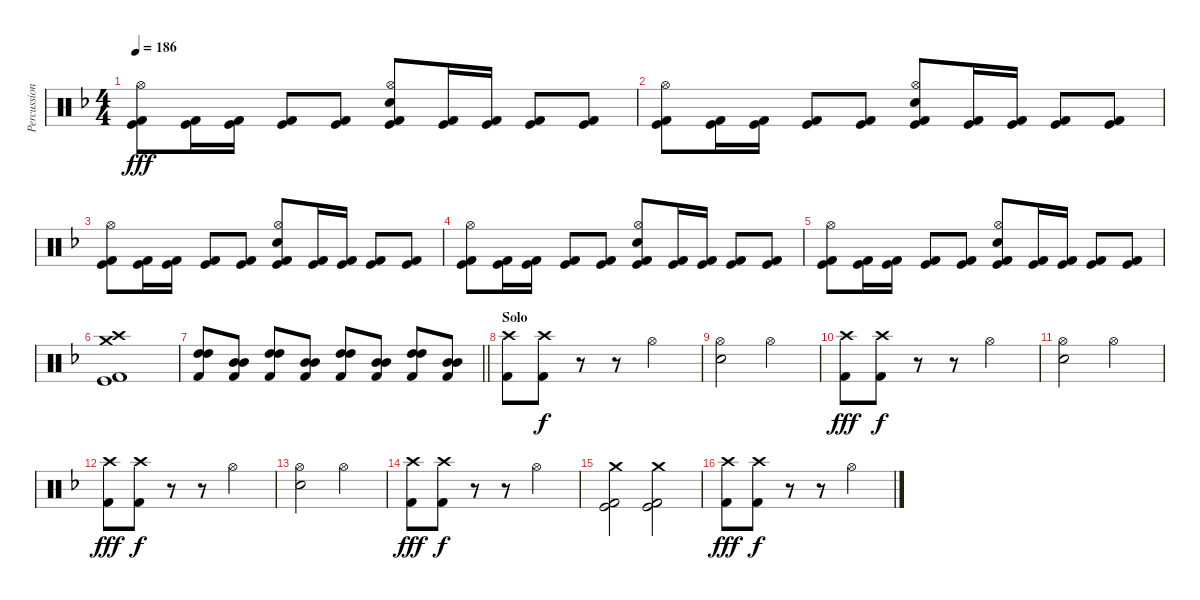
\track ("Percussion" "Percussion") {instrument percussion}
\staff {score}
\articulation defaults
\ts (4 4)
\tempo 186
\clef neutral
\ks f
("Kick (hit)" "Kick (hit) 2" "Hi-Hat (open)").8{dy fff} ("Kick (hit)" "Kick (hit) 2").16 ("Kick (hit)" "Kick (hit) 2").16 ("Kick (hit)" "Kick (hit) 2").8 ("Kick (hit)" "Kick (hit) 2").8 ("Snare (hit) 2" "Kick (hit)" "Kick (hit) 2" "Hi-Hat (open)").8 ("Kick (hit)" "Kick (hit) 2").16 ("Kick (hit)" "Kick (hit) 2").16 ("Kick (hit)" "Kick (hit) 2").8 ("Kick (hit)" "Kick (hit) 2").8 |
("Kick (hit)" "Kick (hit) 2" "Hi-Hat (open)").8 ("Kick (hit)" "Kick (hit) 2").16 ("Kick (hit)" "Kick (hit) 2").16 ("Kick (hit)" "Kick (hit) 2").8 ("Kick (hit)" "Kick (hit) 2").8 ("Snare (hit) 2" "Kick (hit)" "Kick (hit) 2" "Hi-Hat (open)").8 ("Kick (hit)" "Kick (hit) 2").16 ("Kick (hit)" "Kick (hit) 2").16 ("Kick (hit)" "Kick (hit) 2").8 ("Kick (hit)" "Kick (hit) 2").8 |
("Kick (hit)" "Kick (hit) 2" "Hi-Hat (open)").8 ("Kick (hit)" "Kick (hit) 2").16 ("Kick (hit)" "Kick (hit) 2").16 ("Kick (hit)" "Kick (hit) 2").8 ("Kick (hit)" "Kick (hit) 2").8 ("Snare (hit) 2" "Kick (hit)" "Kick (hit) 2" "Hi-Hat (open)").8 ("Kick (hit)" "Kick (hit) 2").16 ("Kick (hit)" "Kick (hit) 2").16 ("Kick (hit)" "Kick (hit) 2").8 ("Kick (hit)" "Kick (hit) 2").8 |
("Kick (hit)" "Kick (hit) 2" "Hi-Hat (open)").8 ("Kick (hit)" "Kick (hit) 2").16 ("Kick (hit)" "Kick (hit) 2").16 ("Kick (hit)" "Kick (hit) 2").8 ("Kick (hit)" "Kick (hit) 2").8 ("Snare (hit) 2" "Kick (hit)" "Kick (hit) 2" "Hi-Hat (open)").8 ("Kick (hit)" "Kick (hit) 2").16 ("Kick (hit)" "Kick (hit) 2").16 ("Kick (hit)" "Kick (hit) 2").8 ("Kick (hit)" "Kick (hit) 2").8 |
("Kick (hit)" "Kick (hit) 2" "Hi-Hat (open)").8 ("Kick (hit)" "Kick (hit) 2").16 ("Kick (hit)" "Kick (hit) 2").16 ("Kick (hit)" "Kick (hit) 2").8 ("Kick (hit)" "Kick (hit) 2").8 ("Snare (hit) 2" "Kick (hit)" "Kick (hit) 2" "Hi-Hat (open)").8 ("Kick (hit)" "Kick (hit) 2").16 ("Kick (hit)" "Kick (hit) 2").16 ("Kick (hit)" "Kick (hit) 2").8 ("Kick (hit)" "Kick (hit) 2").8 |
("Crash high (hit)" "Crash medium (hit)" "Kick (hit)" "Kick (hit) 2").1 |
\barLineRight lightlight
("High Tom (hit)" "High Tom (hit)" "Kick (hit) 2").8 ("Mid Tom (hit)" "Mid Tom (hit)" "Kick (hit) 2").8 ("High Tom (hit)" "High Tom (hit)" "Kick (hit) 2").8 ("Mid Tom (hit)" "Mid Tom (hit)" "Kick (hit) 2").8 ("High Tom (hit)" "High Tom (hit)" "Kick (hit) 2").8 ("Mid Tom (hit)" "Mid Tom (hit)" "Kick (hit) 2").8 ("High Tom (hit)" "High Tom (hit)" "Kick (hit) 2").8 ("Mid Tom (hit)" "Mid Tom (hit)" "Kick (hit) 2").8 |
\section ("" "Solo")
("Crash high (hit)" "Kick (hit) 2").8 ("Crash high (hit)" "Kick (hit) 2").8{dy f} r.8 r.8 "Hi-Hat (open)".2 |
("Hi-Hat (open)" "Snare (hit) 2").2 "Hi-Hat (open)".2 |
("Crash high (hit)" "Kick (hit) 2").8{dy fff} ("Crash high (hit)" "Kick (hit) 2").8{dy f} r.8 r.8 "Hi-Hat (open)".2 |
("Hi-Hat (open)" "Snare (hit) 2").2 "Hi-Hat (open)".2 |
("Crash high (hit)" "Kick (hit) 2").8{dy fff} ("Crash high (hit)" "Kick (hit) 2").8{dy f} r.8 r.8 "Hi-Hat (open)".2 |
("Hi-Hat (open)" "Snare (hit) 2").2 "Hi-Hat (open)".2 |
("Crash high (hit)" "Kick (hit) 2").8{dy fff} ("Crash high (hit)" "Kick (hit) 2").8{dy f} r.8 r.8 "Hi-Hat (open)".2 |
("Crash medium (hit)" "Kick (hit)" "Kick (hit) 2").2 ("Crash medium (hit)" "Kick (hit)" "Kick (hit) 2").2 |
("Crash high (hit)" "Kick (hit) 2").8{dy fff} ("Crash high (hit)" "Kick (hit) 2").8{dy f} r.8 r.8 "Hi-Hat (open)".2
